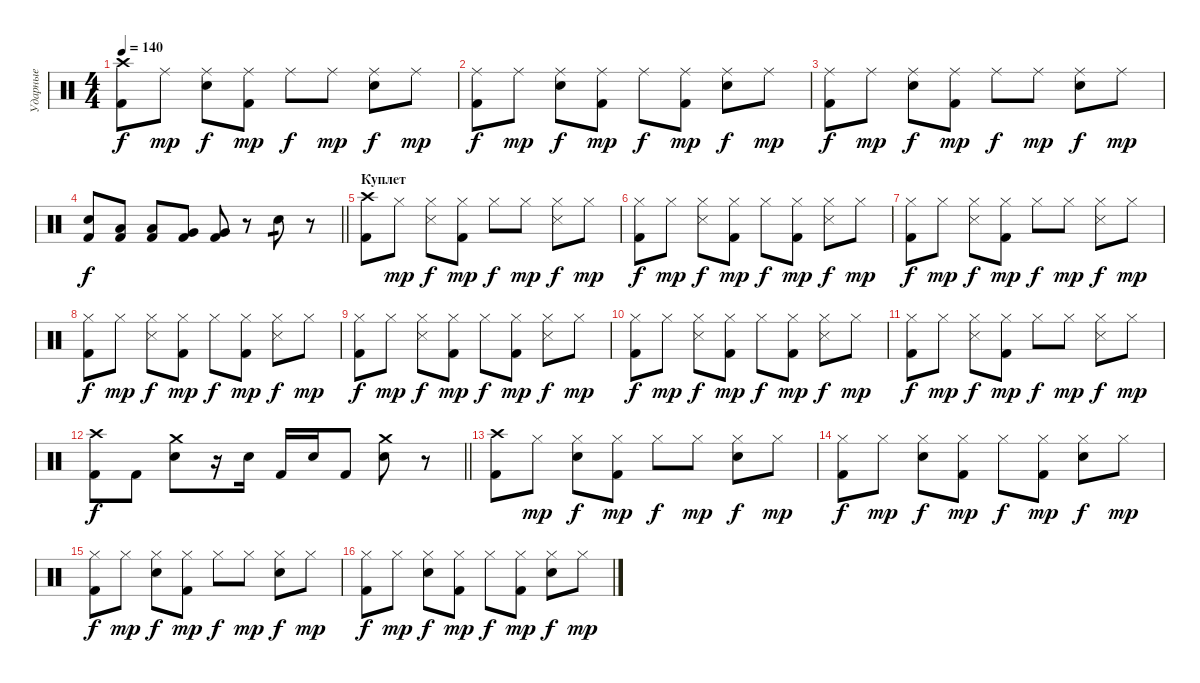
\track ("Ударные" "Ударные") {instrument percussion}
\staff {score}
\articulation defaults
\ts (4 4)
\tempo 140
\clef neutral
\ks c
("Crash high (hit)" "Kick (hit) 2").8{dy f} "Ride (middle)".8{dy mp} ("Ride (middle)" "Snare (hit) 2").8{dy f} ("Ride (middle)" "Kick (hit) 2").8{dy mp} "Ride (middle)".8{dy f} "Ride (middle)".8{dy mp} ("Ride (middle)" "Snare (hit) 2").8{dy f} "Ride (middle)".8{dy mp} |
("Ride (middle)" "Kick (hit) 2").8{dy f} "Ride (middle)".8{dy mp} ("Ride (middle)" "Snare (hit) 2").8{dy f} ("Ride (middle)" "Kick (hit) 2").8{dy mp} "Ride (middle)".8{dy f} ("Ride (middle)" "Kick (hit) 2").8{dy mp} ("Ride (middle)" "Snare (hit) 2").8{dy f} "Ride (middle)".8{dy mp} |
("Ride (middle)" "Kick (hit) 2").8{dy f} "Ride (middle)".8{dy mp} ("Ride (middle)" "Snare (hit) 2").8{dy f} ("Ride (middle)" "Kick (hit) 2").8{dy mp} "Ride (middle)".8{dy f} "Ride (middle)".8{dy mp} ("Ride (middle)" "Snare (hit) 2").8{dy f} "Ride (middle)".8{dy mp} |
\barLineRight lightlight
("Snare (hit) 2" "Kick (hit) 2").8{dy f} ("Low Tom (hit)" "Kick (hit) 2").8 ("Low Tom (hit)" "Kick (hit) 2").8 ("Very Low Tom (hit)" "Kick (hit) 2").8 ("Very Low Tom (hit)" "Kick (hit) 2").8 r.8 "Snare (hit) 2".8{tp 1} r.8 |
\section ("" "Куплет")
("Crash high (hit)" "Kick (hit) 2").8 "Hi-Hat (closed)".8{dy mp} ("Hi-Hat (closed)" "Snare (side stick) 3").8{dy f} ("Hi-Hat (closed)" "Kick (hit) 2").8{dy mp} "Hi-Hat (closed)".8{dy f} "Hi-Hat (closed)".8{dy mp} ("Hi-Hat (closed)" "Snare (side stick) 3").8{dy f} "Hi-Hat (closed)".8{dy mp} |
("Hi-Hat (closed)" "Kick (hit) 2").8{dy f} "Hi-Hat (closed)".8{dy mp} ("Hi-Hat (closed)" "Snare (side stick) 3").8{dy f} ("Hi-Hat (closed)" "Kick (hit) 2").8{dy mp} "Hi-Hat (closed)".8{dy f} ("Hi-Hat (closed)" "Kick (hit) 2").8{dy mp} ("Hi-Hat (closed)" "Snare (side stick) 3").8{dy f} "Hi-Hat (closed)".8{dy mp} |
("Hi-Hat (closed)" "Kick (hit) 2").8{dy f} "Hi-Hat (closed)".8{dy mp} ("Hi-Hat (closed)" "Snare (side stick) 3").8{dy f} ("Hi-Hat (closed)" "Kick (hit) 2").8{dy mp} "Hi-Hat (closed)".8{dy f} "Hi-Hat (closed)".8{dy mp} ("Hi-Hat (closed)" "Snare (side stick) 3").8{dy f} "Hi-Hat (closed)".8{dy mp} |
("Hi-Hat (closed)" "Kick (hit) 2").8{dy f} "Hi-Hat (closed)".8{dy mp} ("Hi-Hat (closed)" "Snare (side stick) 3").8{dy f} ("Hi-Hat (closed)" "Kick (hit) 2").8{dy mp} "Hi-Hat (closed)".8{dy f} ("Hi-Hat (closed)" "Kick (hit) 2").8{dy mp} ("Hi-Hat (closed)" "Snare (side stick) 3").8{dy f} "Hi-Hat (closed)".8{dy mp} |
("Hi-Hat (closed)" "Kick (hit) 2").8{dy f} "Hi-Hat (closed)".8{dy mp} ("Hi-Hat (closed)" "Snare (side stick) 3").8{dy f} ("Hi-Hat (closed)" "Kick (hit) 2").8{dy mp} "Hi-Hat (closed)".8{dy f} ("Hi-Hat (closed)" "Kick (hit) 2").8{dy mp} ("Hi-Hat (closed)" "Snare (side stick) 3").8{dy f} "Hi-Hat (closed)".8{dy mp} |
("Hi-Hat (closed)" "Kick (hit) 2").8{dy f} "Hi-Hat (closed)".8{dy mp} ("Hi-Hat (closed)" "Snare (side stick) 3").8{dy f} ("Hi-Hat (closed)" "Kick (hit) 2").8{dy mp} "Hi-Hat (closed)".8{dy f} ("Hi-Hat (closed)" "Kick (hit) 2").8{dy mp} ("Hi-Hat (closed)" "Snare (side stick) 3").8{dy f} "Hi-Hat (closed)".8{dy mp} |
("Hi-Hat (closed)" "Kick (hit) 2").8{dy f} "Hi-Hat (closed)".8{dy mp} ("Hi-Hat (closed)" "Snare (side stick) 3").8{dy f} ("Hi-Hat (closed)" "Kick (hit) 2").8{dy mp} "Hi-Hat (closed)".8{dy f} "Hi-Hat (closed)".8{dy mp} ("Hi-Hat (closed)" "Snare (side stick) 3").8{dy f} "Hi-Hat (closed)".8{dy mp} |
\barLineRight lightlight
("Crash high (hit)" "Kick (hit) 2").8{dy f} "Kick (hit) 2".8 ("Crash medium (hit)" "Snare (hit) 2").8 r.16 "Snare (hit) 2".16 "Kick (hit) 2".16 "Snare (hit) 2".16 "Kick (hit) 2".8 ("Crash medium (hit)" "Snare (hit) 2").8 r.8 |
\section ("" "")
("Crash high (hit)" "Kick (hit) 2").8 "Hi-Hat (closed)".8{dy mp} ("Hi-Hat (closed)" "Snare (hit) 2").8{dy f} ("Hi-Hat (closed)" "Kick (hit) 2").8{dy mp} "Hi-Hat (closed)".8{dy f} "Hi-Hat (closed)".8{dy mp} ("Hi-Hat (closed)" "Snare (hit) 2").8{dy f} "Hi-Hat (closed)".8{dy mp} |
("Hi-Hat (closed)" "Kick (hit) 2").8{dy f} "Hi-Hat (closed)".8{dy mp} ("Hi-Hat (closed)" "Snare (hit) 2").8{dy f} ("Hi-Hat (closed)" "Kick (hit) 2").8{dy mp} "Hi-Hat (closed)".8{dy f} ("Hi-Hat (closed)" "Kick (hit) 2").8{dy mp} ("Hi-Hat (closed)" "Snare (hit) 2").8{dy f} "Hi-Hat (closed)".8{dy mp} |
("Hi-Hat (closed)" "Kick (hit) 2").8{dy f} "Hi-Hat (closed)".8{dy mp} ("Hi-Hat (closed)" "Snare (hit) 2").8{dy f} ("Hi-Hat (closed)" "Kick (hit) 2").8{dy mp} "Hi-Hat (closed)".8{dy f} "Hi-Hat (closed)".8{dy mp} ("Hi-Hat (closed)" "Snare (hit) 2").8{dy f} "Hi-Hat (closed)".8{dy mp} |
("Hi-Hat (closed)" "Kick (hit) 2").8{dy f} "Hi-Hat (closed)".8{dy mp} ("Hi-Hat (closed)" "Snare (hit) 2").8{dy f} ("Hi-Hat (closed)" "Kick (hit) 2").8{dy mp} "Hi-Hat (closed)".8{dy f} ("Hi-Hat (closed)" "Kick (hit) 2").8{dy mp} ("Hi-Hat (closed)" "Snare (hit) 2").8{dy f} "Hi-Hat (closed)".8{dy mp}
